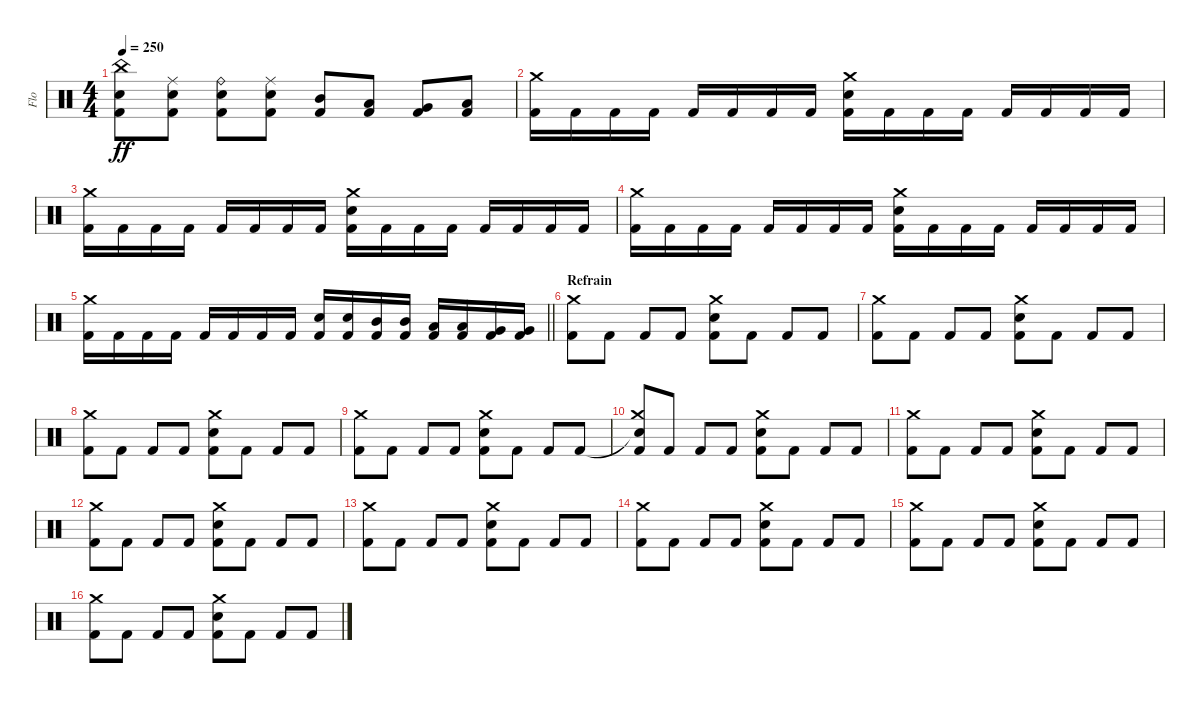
\track ("Flo" "Flo") {instrument percussion}
\staff {score}
\articulation defaults
\ts (4 4)
\tempo 250
\clef neutral
\ks c
("China (hit)" "Electric Snare (hit)" "Kick (hit) 2").8{dy ff} ("Ride (middle)" "Electric Snare (hit)" "Kick (hit) 2").8 ("Ride (bell)" "Electric Snare (hit)" "Kick (hit) 2").8 ("Ride (middle)" "Electric Snare (hit)" "Kick (hit) 2").8 ("Mid Tom (hit)" "Kick (hit) 2").8 ("Low Tom (hit)" "Kick (hit) 2").8 ("Very Low Tom (hit)" "Kick (hit) 2").8 ("Low Floor Tom (hit)" "Kick (hit) 2").8 |
("Crash medium (hit)" "Kick (hit) 2").16 "Kick (hit) 2".16 "Kick (hit) 2".16 "Kick (hit) 2".16 "Kick (hit) 2".16 "Kick (hit) 2".16 "Kick (hit) 2".16 "Kick (hit) 2".16 ("Crash medium (hit)" "Electric Snare (hit)" "Kick (hit) 2").16 "Kick (hit) 2".16 "Kick (hit) 2".16 "Kick (hit) 2".16 "Kick (hit) 2".16 "Kick (hit) 2".16 "Kick (hit) 2".16 "Kick (hit) 2".16 |
("Crash medium (hit)" "Kick (hit) 2").16 "Kick (hit) 2".16 "Kick (hit) 2".16 "Kick (hit) 2".16 "Kick (hit) 2".16 "Kick (hit) 2".16 "Kick (hit) 2".16 "Kick (hit) 2".16 ("Crash medium (hit)" "Electric Snare (hit)" "Kick (hit) 2").16 "Kick (hit) 2".16 "Kick (hit) 2".16 "Kick (hit) 2".16 "Kick (hit) 2".16 "Kick (hit) 2".16 "Kick (hit) 2".16 "Kick (hit) 2".16 |
("Crash medium (hit)" "Kick (hit) 2").16 "Kick (hit) 2".16 "Kick (hit) 2".16 "Kick (hit) 2".16 "Kick (hit) 2".16 "Kick (hit) 2".16 "Kick (hit) 2".16 "Kick (hit) 2".16 ("Crash medium (hit)" "Electric Snare (hit)" "Kick (hit) 2").16 "Kick (hit) 2".16 "Kick (hit) 2".16 "Kick (hit) 2".16 "Kick (hit) 2".16 "Kick (hit) 2".16 "Kick (hit) 2".16 "Kick (hit) 2".16 |
\barLineRight lightlight
("Crash medium (hit)" "Kick (hit) 2").16 "Kick (hit) 2".16 "Kick (hit) 2".16 "Kick (hit) 2".16 "Kick (hit) 2".16 "Kick (hit) 2".16 "Kick (hit) 2".16 "Kick (hit) 2".16 ("Electric Snare (hit)" "Kick (hit) 2").16 ("Electric Snare (hit)" "Kick (hit) 2").16 ("Mid Tom (hit)" "Kick (hit) 2").16 ("Mid Tom (hit)" "Kick (hit) 2").16 ("Low Tom (hit)" "Kick (hit) 2").16 ("Low Tom (hit)" "Kick (hit) 2").16 ("Very Low Tom (hit)" "Kick (hit) 2").16 ("Very Low Tom (hit)" "Kick (hit) 2").16 |
\section ("" "Refrain")
("Crash medium (hit)" "Kick (hit) 2").8 "Kick (hit) 2".8 "Kick (hit) 2".8 "Kick (hit) 2".8 ("Crash medium (hit)" "Electric Snare (hit)" "Kick (hit) 2").8 "Kick (hit) 2".8 "Kick (hit) 2".8 "Kick (hit) 2".8 |
("Crash medium (hit)" "Kick (hit) 2").8 "Kick (hit) 2".8 "Kick (hit) 2".8 "Kick (hit) 2".8 ("Crash medium (hit)" "Electric Snare (hit)" "Kick (hit) 2").8 "Kick (hit) 2".8 "Kick (hit) 2".8 "Kick (hit) 2".8 |
("Crash medium (hit)" "Kick (hit) 2").8 "Kick (hit) 2".8 "Kick (hit) 2".8 "Kick (hit) 2".8 ("Crash medium (hit)" "Electric Snare (hit)" "Kick (hit) 2").8 "Kick (hit) 2".8 "Kick (hit) 2".8 "Kick (hit) 2".8 |
("Crash medium (hit)" "Kick (hit) 2").8 "Kick (hit) 2".8 "Kick (hit) 2".8 "Kick (hit) 2".8 ("Crash medium (hit)" "Electric Snare (hit)" "Kick (hit) 2").8 "Kick (hit) 2".8 "Kick (hit) 2".8 "Kick (hit) 2".8 |
("Snare (hit)"{t} "Crash medium (hit)" "Kick (hit) 2").8 "Kick (hit) 2".8 "Kick (hit) 2".8 "Kick (hit) 2".8 ("Crash medium (hit)" "Electric Snare (hit)" "Kick (hit) 2").8 "Kick (hit) 2".8 "Kick (hit) 2".8 "Kick (hit) 2".8 |
("Crash medium (hit)" "Kick (hit) 2").8 "Kick (hit) 2".8 "Kick (hit) 2".8 "Kick (hit) 2".8 ("Crash medium (hit)" "Electric Snare (hit)" "Kick (hit) 2").8 "Kick (hit) 2".8 "Kick (hit) 2".8 "Kick (hit) 2".8 |
("Crash medium (hit)" "Kick (hit) 2").8 "Kick (hit) 2".8 "Kick (hit) 2".8 "Kick (hit) 2".8 ("Crash medium (hit)" "Electric Snare (hit)" "Kick (hit) 2").8 "Kick (hit) 2".8 "Kick (hit) 2".8 "Kick (hit) 2".8 |
("Crash medium (hit)" "Kick (hit) 2").8 "Kick (hit) 2".8 "Kick (hit) 2".8 "Kick (hit) 2".8 ("Crash medium (hit)" "Electric Snare (hit)" "Kick (hit) 2").8 "Kick (hit) 2".8 "Kick (hit) 2".8 "Kick (hit) 2".8 |
("Crash medium (hit)" "Kick (hit) 2").8 "Kick (hit) 2".8 "Kick (hit) 2".8 "Kick (hit) 2".8 ("Crash medium (hit)" "Electric Snare (hit)" "Kick (hit) 2").8 "Kick (hit) 2".8 "Kick (hit) 2".8 "Kick (hit) 2".8 |
("Crash medium (hit)" "Kick (hit) 2").8 "Kick (hit) 2".8 "Kick (hit) 2".8 "Kick (hit) 2".8 ("Crash medium (hit)" "Electric Snare (hit)" "Kick (hit) 2").8 "Kick (hit) 2".8 "Kick (hit) 2".8 "Kick (hit) 2".8 |
("Crash medium (hit)" "Kick (hit) 2").8 "Kick (hit) 2".8 "Kick (hit) 2".8 "Kick (hit) 2".8 ("Crash medium (hit)" "Electric Snare (hit)" "Kick (hit) 2").8 "Kick (hit) 2".8 "Kick (hit) 2".8 "Kick (hit) 2".8
